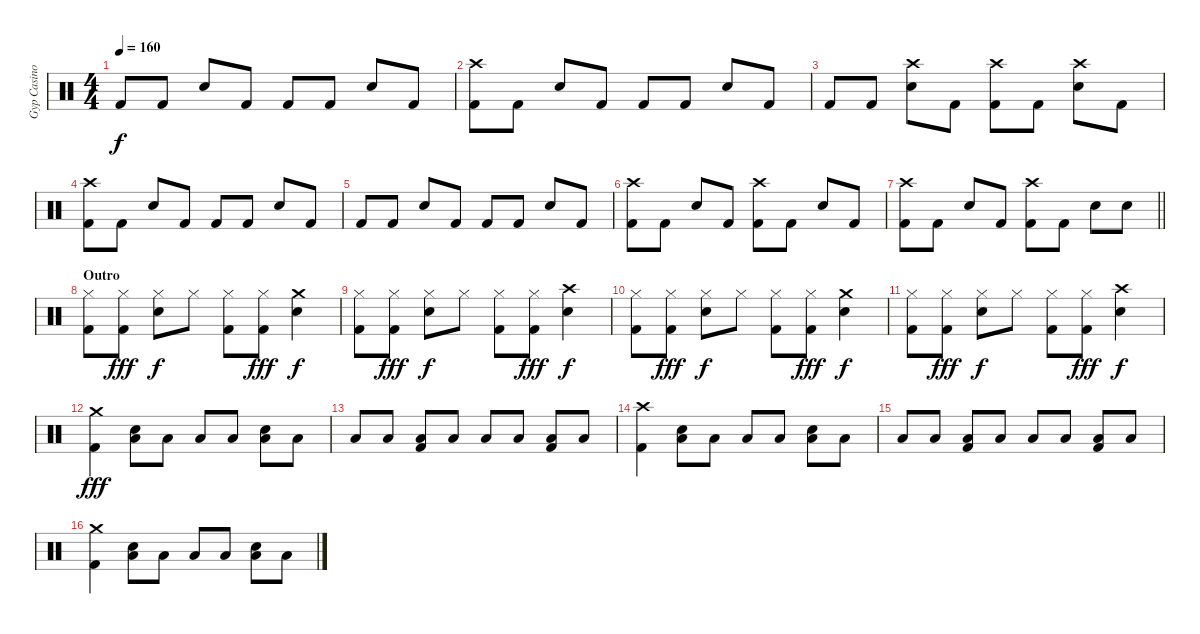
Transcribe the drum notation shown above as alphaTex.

\track ("Gyp Casino" "Gyp Casino") {instrument percussion}
\staff {score}
\articulation defaults
\ts (4 4)
\tempo 160
\clef neutral
\ks c "Kick (hit) 2".8{dy f} "Kick (hit) 2".8 "Snare (hit) 2".8 "Kick (hit) 2".8 "Kick (hit) 2".8 "Kick (hit) 2".8 "Snare (hit) 2".8 "Kick (hit) 2".8
|
("Crash high (hit)" "Kick (hit) 2").8 "Kick (hit) 2".8 "Snare (hit) 2".8 "Kick (hit) 2".8 "Kick (hit) 2".8 "Kick (hit) 2".8 "Snare (hit) 2".8 "Kick (hit) 2".8 |
"Kick (hit) 2".8 "Kick (hit) 2".8 ("Crash high (hit)" "Snare (hit) 2").8 "Kick (hit) 2".8 ("Crash high (hit)" "Kick (hit) 2").8 "Kick (hit) 2".8 ("Crash high (hit)" "Snare (hit) 2").8 "Kick (hit) 2".8 |
("Crash high (hit)" "Kick (hit) 2").8 "Kick (hit) 2".8 "Snare (hit) 2".8 "Kick (hit) 2".8 "Kick (hit) 2".8 "Kick (hit) 2".8 "Snare (hit) 2".8 "Kick (hit) 2".8 |
"Kick (hit) 2".8 "Kick (hit) 2".8 "Snare (hit) 2".8 "Kick (hit) 2".8 "Kick (hit) 2".8 "Kick (hit) 2".8 "Snare (hit) 2".8 "Kick (hit) 2".8 |
("Crash high (hit)" "Kick (hit) 2").8 "Kick (hit) 2".8 "Snare (hit) 2".8 "Kick (hit) 2".8 ("Crash high (hit)" "Kick (hit) 2").8 "Kick (hit) 2".8 "Snare (hit) 2".8 "Kick (hit) 2".8 |
\barLineRight lightlight
("Crash high (hit)" "Kick (hit) 2").8 "Kick (hit) 2".8 "Snare (hit) 2".8 "Kick (hit) 2".8 ("Crash high (hit)" "Kick (hit) 2").8 "Kick (hit) 2".8 "Snare (hit) 2".8 "Snare (hit) 2".8 |
\section ("" "Outro")
("Hi-Hat (closed)" "Kick (hit) 2").8 ("Hi-Hat (closed)" "Kick (hit) 2").8{dy fff} ("Hi-Hat (closed)" "Snare (hit) 2").8{dy f} "Hi-Hat (closed)".8 ("Hi-Hat (closed)" "Kick (hit) 2").8 ("Hi-Hat (closed)" "Kick (hit) 2").8{dy fff} ("Crash medium (hit)" "Snare (hit) 2").4{dy f} |
("Hi-Hat (closed)" "Kick (hit) 2").8 ("Hi-Hat (closed)" "Kick (hit) 2").8{dy fff} ("Hi-Hat (closed)" "Snare (hit) 2").8{dy f} "Hi-Hat (closed)".8 ("Hi-Hat (closed)" "Kick (hit) 2").8 ("Hi-Hat (closed)" "Kick (hit) 2").8{dy fff} ("Crash high (hit)" "Snare (hit) 2").4{dy f} |
("Hi-Hat (closed)" "Kick (hit) 2").8 ("Hi-Hat (closed)" "Kick (hit) 2").8{dy fff} ("Hi-Hat (closed)" "Snare (hit) 2").8{dy f} "Hi-Hat (closed)".8 ("Hi-Hat (closed)" "Kick (hit) 2").8 ("Hi-Hat (closed)" "Kick (hit) 2").8{dy fff} ("Crash medium (hit)" "Snare (hit) 2").4{dy f} |
("Hi-Hat (closed)" "Kick (hit) 2").8 ("Hi-Hat (closed)" "Kick (hit) 2").8{dy fff} ("Hi-Hat (closed)" "Snare (hit) 2").8{dy f} "Hi-Hat (closed)".8 ("Hi-Hat (closed)" "Kick (hit) 2").8 ("Hi-Hat (closed)" "Kick (hit) 2").8{dy fff} ("Crash high (hit)" "Snare (hit) 2").4{dy f} |
("Crash medium (hit)" "Kick (hit) 2").4{dy fff} ("Low Tom (hit)" "Snare (hit) 2").8 "Low Tom (hit)".8 "Low Tom (hit)".8 "Low Tom (hit)".8 ("Low Tom (hit)" "Snare (hit) 2").8 "Low Tom (hit)".8 |
"Low Tom (hit)".8 "Low Tom (hit)".8 ("Low Tom (hit)" "Kick (hit) 2").8 "Low Tom (hit)".8 "Low Tom (hit)".8 "Low Tom (hit)".8 ("Low Tom (hit)" "Kick (hit) 2").8 "Low Tom (hit)".8 |
("Crash high (hit)" "Kick (hit) 2").4 ("Low Tom (hit)" "Snare (hit) 2").8 "Low Tom (hit)".8 "Low Tom (hit)".8 "Low Tom (hit)".8 ("Low Tom (hit)" "Snare (hit) 2").8 "Low Tom (hit)".8 |
"Low Tom (hit)".8 "Low Tom (hit)".8 ("Low Tom (hit)" "Kick (hit) 2").8 "Low Tom (hit)".8 "Low Tom (hit)".8 "Low Tom (hit)".8 ("Low Tom (hit)" "Kick (hit) 2").8 "Low Tom (hit)".8 |
("Crash medium (hit)" "Kick (hit) 2").4 ("Low Tom (hit)" "Snare (hit) 2").8 "Low Tom (hit)".8 "Low Tom (hit)".8 "Low Tom (hit)".8 ("Low Tom (hit)" "Snare (hit) 2").8 "Low Tom (hit)".8
